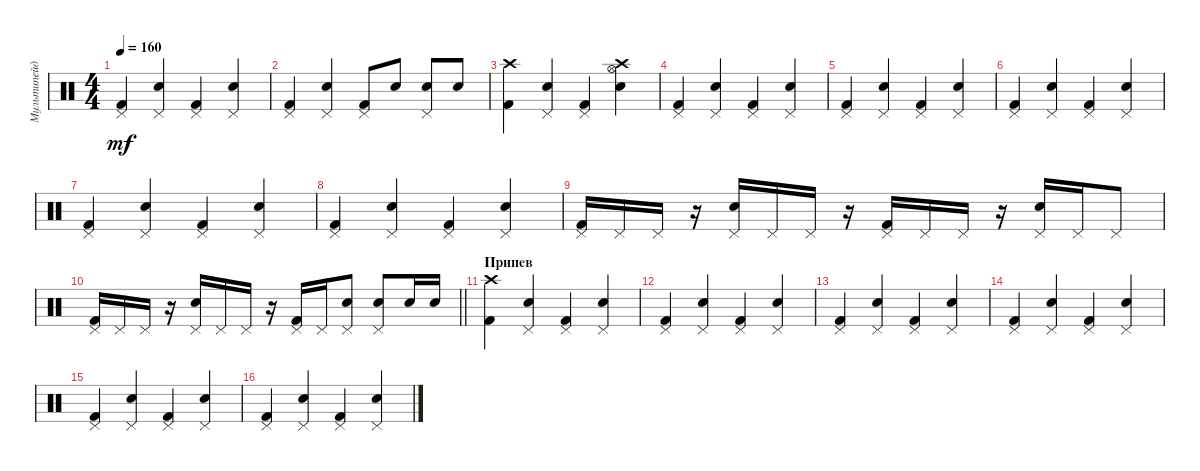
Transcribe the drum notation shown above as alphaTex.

\track ("Мультипейджер" "Мультипейд") {instrument percussion}
\staff {score}
\articulation defaults
\ts (4 4)
\tempo 160
\clef neutral
\ks c
("Pedal Hi-Hat (hit)" "Kick (hit) 2").4{dy mf} ("Pedal Hi-Hat (hit)" "Snare (hit) 2").4 ("Pedal Hi-Hat (hit)" "Kick (hit) 2").4 ("Pedal Hi-Hat (hit)" "Snare (hit) 2").4 |
("Pedal Hi-Hat (hit)" "Kick (hit) 2").4 ("Pedal Hi-Hat (hit)" "Snare (hit) 2").4 ("Pedal Hi-Hat (hit)" "Kick (hit) 2").8 "Electric Snare (hit)".8 ("Pedal Hi-Hat (hit)" "Electric Snare (hit)").8 "Electric Snare (hit)".8 |
("Crash high (hit)" "Kick (hit) 2").4 ("Pedal Hi-Hat (hit)" "Snare (hit) 2").4 ("Pedal Hi-Hat (hit)" "Kick (hit) 2").4 ("Hi-Hat (open)" "Crash high (hit)" "Snare (hit) 2").4 |
("Pedal Hi-Hat (hit)" "Kick (hit) 2").4 ("Pedal Hi-Hat (hit)" "Snare (hit) 2").4 ("Pedal Hi-Hat (hit)" "Kick (hit) 2").4 ("Pedal Hi-Hat (hit)" "Snare (hit) 2").4 |
("Pedal Hi-Hat (hit)" "Kick (hit) 2").4 ("Pedal Hi-Hat (hit)" "Snare (hit) 2").4 ("Pedal Hi-Hat (hit)" "Kick (hit) 2").4 ("Pedal Hi-Hat (hit)" "Snare (hit) 2").4 |
("Pedal Hi-Hat (hit)" "Kick (hit) 2").4 ("Pedal Hi-Hat (hit)" "Snare (hit) 2").4 ("Pedal Hi-Hat (hit)" "Kick (hit) 2").4 ("Pedal Hi-Hat (hit)" "Snare (hit) 2").4 |
("Pedal Hi-Hat (hit)" "Kick (hit) 2").4 ("Pedal Hi-Hat (hit)" "Snare (hit) 2").4 ("Pedal Hi-Hat (hit)" "Kick (hit) 2").4 ("Pedal Hi-Hat (hit)" "Snare (hit) 2").4 |
("Pedal Hi-Hat (hit)" "Kick (hit) 2").4 ("Pedal Hi-Hat (hit)" "Snare (hit) 2").4 ("Pedal Hi-Hat (hit)" "Kick (hit) 2").4 ("Pedal Hi-Hat (hit)" "Snare (hit) 2").4 |
("Pedal Hi-Hat (hit)" "Kick (hit) 2").16 "Pedal Hi-Hat (hit)".16 "Pedal Hi-Hat (hit)".16 r.16 ("Pedal Hi-Hat (hit)" "Snare (hit) 2").16 "Pedal Hi-Hat (hit)".16 "Pedal Hi-Hat (hit)".16 r.16 ("Pedal Hi-Hat (hit)" "Kick (hit) 2").16 "Pedal Hi-Hat (hit)".16 "Pedal Hi-Hat (hit)".16 r.16 ("Pedal Hi-Hat (hit)" "Snare (hit) 2").16 "Pedal Hi-Hat (hit)".16 "Pedal Hi-Hat (hit)".8 |
\barLineRight lightlight
("Pedal Hi-Hat (hit)" "Kick (hit) 2").16 "Pedal Hi-Hat (hit)".16 "Pedal Hi-Hat (hit)".16 r.16 ("Pedal Hi-Hat (hit)" "Snare (hit) 2").16 "Pedal Hi-Hat (hit)".16 "Pedal Hi-Hat (hit)".16 r.16 ("Pedal Hi-Hat (hit)" "Kick (hit) 2").16 "Pedal Hi-Hat (hit)".16 ("Pedal Hi-Hat (hit)" "Electric Snare (hit)").8 ("Pedal Hi-Hat (hit)" "Electric Snare (hit)").8 "Electric Snare (hit)".16 "Electric Snare (hit)".16 |
\section ("" "Припев")
("Crash high (hit)" "Kick (hit) 2").4 ("Pedal Hi-Hat (hit)" "Snare (hit) 2").4 ("Pedal Hi-Hat (hit)" "Kick (hit) 2").4 ("Pedal Hi-Hat (hit)" "Snare (hit) 2").4 |
("Pedal Hi-Hat (hit)" "Kick (hit) 2").4 ("Pedal Hi-Hat (hit)" "Snare (hit) 2").4 ("Pedal Hi-Hat (hit)" "Kick (hit) 2").4 ("Pedal Hi-Hat (hit)" "Snare (hit) 2").4 |
("Pedal Hi-Hat (hit)" "Kick (hit) 2").4 ("Pedal Hi-Hat (hit)" "Snare (hit) 2").4 ("Pedal Hi-Hat (hit)" "Kick (hit) 2").4 ("Pedal Hi-Hat (hit)" "Snare (hit) 2").4 |
("Pedal Hi-Hat (hit)" "Kick (hit) 2").4 ("Pedal Hi-Hat (hit)" "Snare (hit) 2").4 ("Pedal Hi-Hat (hit)" "Kick (hit) 2").4 ("Pedal Hi-Hat (hit)" "Snare (hit) 2").4 |
("Pedal Hi-Hat (hit)" "Kick (hit) 2").4 ("Pedal Hi-Hat (hit)" "Snare (hit) 2").4 ("Pedal Hi-Hat (hit)" "Kick (hit) 2").4 ("Pedal Hi-Hat (hit)" "Snare (hit) 2").4 |
("Pedal Hi-Hat (hit)" "Kick (hit) 2").4 ("Pedal Hi-Hat (hit)" "Snare (hit) 2").4 ("Pedal Hi-Hat (hit)" "Kick (hit) 2").4 ("Pedal Hi-Hat (hit)" "Snare (hit) 2").4
